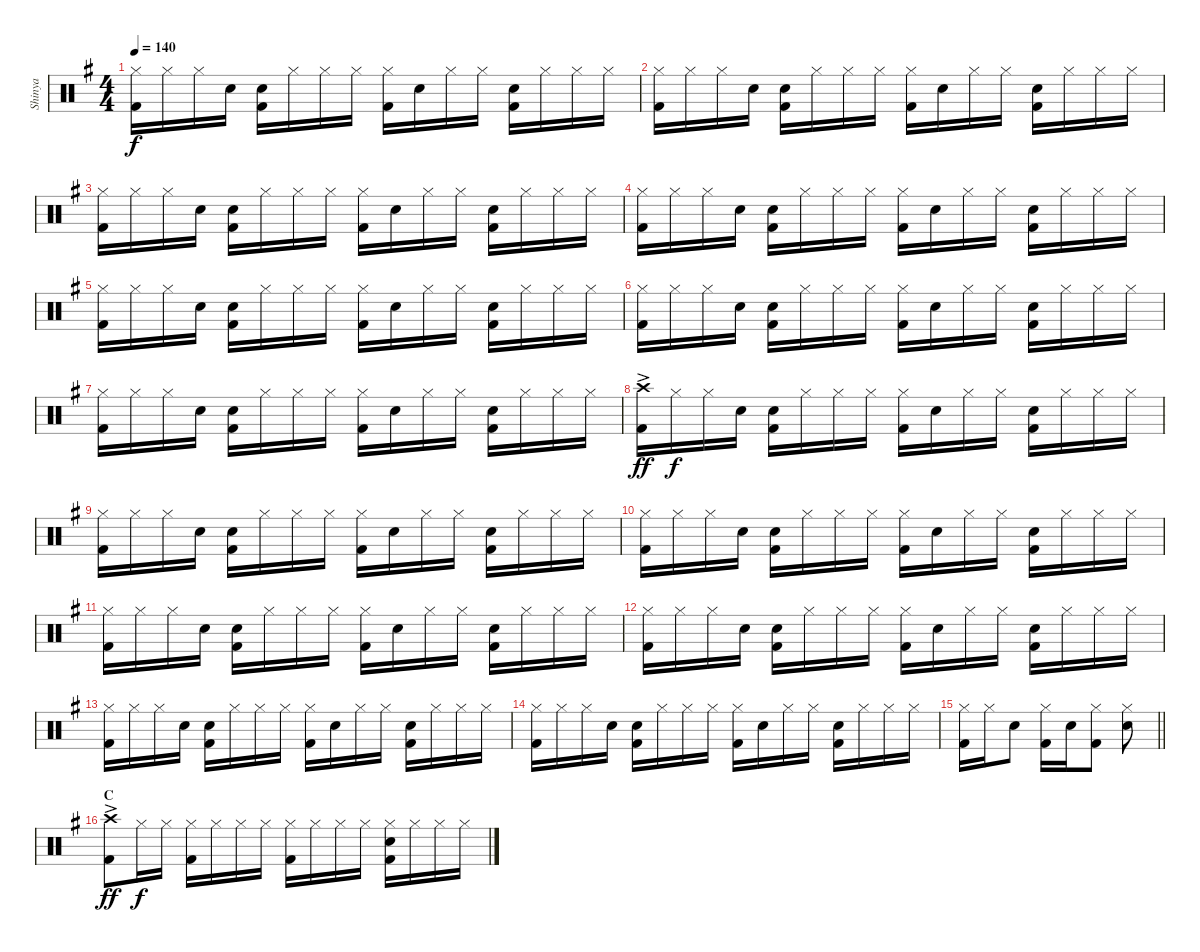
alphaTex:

\track ("Shinya" "Shinya") {instrument percussion}
\staff {score}
\articulation defaults
\ts (4 4)
\tempo 140
\clef neutral
\ks g
("Hi-Hat (closed)" "Kick (hit) 2").16{dy f} "Hi-Hat (closed)".16 "Hi-Hat (closed)".16 "Snare (hit) 2".16 ("Snare (hit) 2" "Kick (hit) 2").16 "Hi-Hat (closed)".16 "Hi-Hat (closed)".16 "Hi-Hat (closed)".16 ("Hi-Hat (closed)" "Kick (hit) 2").16 "Snare (hit) 2".16 "Hi-Hat (closed)".16 "Hi-Hat (closed)".16 ("Snare (hit) 2" "Kick (hit) 2").16 "Hi-Hat (closed)".16 "Hi-Hat (closed)".16 "Hi-Hat (closed)".16 |
("Hi-Hat (closed)" "Kick (hit) 2").16 "Hi-Hat (closed)".16 "Hi-Hat (closed)".16 "Snare (hit) 2".16 ("Snare (hit) 2" "Kick (hit) 2").16 "Hi-Hat (closed)".16 "Hi-Hat (closed)".16 "Hi-Hat (closed)".16 ("Hi-Hat (closed)" "Kick (hit) 2").16 "Snare (hit) 2".16 "Hi-Hat (closed)".16 "Hi-Hat (closed)".16 ("Snare (hit) 2" "Kick (hit) 2").16 "Hi-Hat (closed)".16 "Hi-Hat (closed)".16 "Hi-Hat (closed)".16 |
("Hi-Hat (closed)" "Kick (hit) 2").16 "Hi-Hat (closed)".16 "Hi-Hat (closed)".16 "Snare (hit) 2".16 ("Snare (hit) 2" "Kick (hit) 2").16 "Hi-Hat (closed)".16 "Hi-Hat (closed)".16 "Hi-Hat (closed)".16 ("Hi-Hat (closed)" "Kick (hit) 2").16 "Snare (hit) 2".16 "Hi-Hat (closed)".16 "Hi-Hat (closed)".16 ("Snare (hit) 2" "Kick (hit) 2").16 "Hi-Hat (closed)".16 "Hi-Hat (closed)".16 "Hi-Hat (closed)".16 |
("Hi-Hat (closed)" "Kick (hit) 2").16 "Hi-Hat (closed)".16 "Hi-Hat (closed)".16 "Snare (hit) 2".16 ("Snare (hit) 2" "Kick (hit) 2").16 "Hi-Hat (closed)".16 "Hi-Hat (closed)".16 "Hi-Hat (closed)".16 ("Hi-Hat (closed)" "Kick (hit) 2").16 "Snare (hit) 2".16 "Hi-Hat (closed)".16 "Hi-Hat (closed)".16 ("Snare (hit) 2" "Kick (hit) 2").16 "Hi-Hat (closed)".16 "Hi-Hat (closed)".16 "Hi-Hat (closed)".16 |
("Hi-Hat (closed)" "Kick (hit) 2").16 "Hi-Hat (closed)".16 "Hi-Hat (closed)".16 "Snare (hit) 2".16 ("Snare (hit) 2" "Kick (hit) 2").16 "Hi-Hat (closed)".16 "Hi-Hat (closed)".16 "Hi-Hat (closed)".16 ("Hi-Hat (closed)" "Kick (hit) 2").16 "Snare (hit) 2".16 "Hi-Hat (closed)".16 "Hi-Hat (closed)".16 ("Snare (hit) 2" "Kick (hit) 2").16 "Hi-Hat (closed)".16 "Hi-Hat (closed)".16 "Hi-Hat (closed)".16 |
("Hi-Hat (closed)" "Kick (hit) 2").16 "Hi-Hat (closed)".16 "Hi-Hat (closed)".16 "Snare (hit) 2".16 ("Snare (hit) 2" "Kick (hit) 2").16 "Hi-Hat (closed)".16 "Hi-Hat (closed)".16 "Hi-Hat (closed)".16 ("Hi-Hat (closed)" "Kick (hit) 2").16 "Snare (hit) 2".16 "Hi-Hat (closed)".16 "Hi-Hat (closed)".16 ("Snare (hit) 2" "Kick (hit) 2").16 "Hi-Hat (closed)".16 "Hi-Hat (closed)".16 "Hi-Hat (closed)".16 |
("Hi-Hat (closed)" "Kick (hit) 2").16 "Hi-Hat (closed)".16 "Hi-Hat (closed)".16 "Snare (hit) 2".16 ("Snare (hit) 2" "Kick (hit) 2").16 "Hi-Hat (closed)".16 "Hi-Hat (closed)".16 "Hi-Hat (closed)".16 ("Hi-Hat (closed)" "Kick (hit) 2").16 "Snare (hit) 2".16 "Hi-Hat (closed)".16 "Hi-Hat (closed)".16 ("Snare (hit) 2" "Kick (hit) 2").16 "Hi-Hat (closed)".16 "Hi-Hat (closed)".16 "Hi-Hat (closed)".16 |
("Crash high (hit)"{ac} "Kick (hit) 2").16{dy ff} "Hi-Hat (closed)".16{dy f} "Hi-Hat (closed)".16 "Snare (hit) 2".16 ("Snare (hit) 2" "Kick (hit) 2").16 "Hi-Hat (closed)".16 "Hi-Hat (closed)".16 "Hi-Hat (closed)".16 ("Hi-Hat (closed)" "Kick (hit) 2").16 "Snare (hit) 2".16 "Hi-Hat (closed)".16 "Hi-Hat (closed)".16 ("Snare (hit) 2" "Kick (hit) 2").16 "Hi-Hat (closed)".16 "Hi-Hat (closed)".16 "Hi-Hat (closed)".16 |
("Hi-Hat (closed)" "Kick (hit) 2").16 "Hi-Hat (closed)".16 "Hi-Hat (closed)".16 "Snare (hit) 2".16 ("Snare (hit) 2" "Kick (hit) 2").16 "Hi-Hat (closed)".16 "Hi-Hat (closed)".16 "Hi-Hat (closed)".16 ("Hi-Hat (closed)" "Kick (hit) 2").16 "Snare (hit) 2".16 "Hi-Hat (closed)".16 "Hi-Hat (closed)".16 ("Snare (hit) 2" "Kick (hit) 2").16 "Hi-Hat (closed)".16 "Hi-Hat (closed)".16 "Hi-Hat (closed)".16 |
("Hi-Hat (closed)" "Kick (hit) 2").16 "Hi-Hat (closed)".16 "Hi-Hat (closed)".16 "Snare (hit) 2".16 ("Snare (hit) 2" "Kick (hit) 2").16 "Hi-Hat (closed)".16 "Hi-Hat (closed)".16 "Hi-Hat (closed)".16 ("Hi-Hat (closed)" "Kick (hit) 2").16 "Snare (hit) 2".16 "Hi-Hat (closed)".16 "Hi-Hat (closed)".16 ("Snare (hit) 2" "Kick (hit) 2").16 "Hi-Hat (closed)".16 "Hi-Hat (closed)".16 "Hi-Hat (closed)".16 |
("Hi-Hat (closed)" "Kick (hit) 2").16 "Hi-Hat (closed)".16 "Hi-Hat (closed)".16 "Snare (hit) 2".16 ("Snare (hit) 2" "Kick (hit) 2").16 "Hi-Hat (closed)".16 "Hi-Hat (closed)".16 "Hi-Hat (closed)".16 ("Hi-Hat (closed)" "Kick (hit) 2").16 "Snare (hit) 2".16 "Hi-Hat (closed)".16 "Hi-Hat (closed)".16 ("Snare (hit) 2" "Kick (hit) 2").16 "Hi-Hat (closed)".16 "Hi-Hat (closed)".16 "Hi-Hat (closed)".16 |
("Hi-Hat (closed)" "Kick (hit) 2").16 "Hi-Hat (closed)".16 "Hi-Hat (closed)".16 "Snare (hit) 2".16 ("Snare (hit) 2" "Kick (hit) 2").16 "Hi-Hat (closed)".16 "Hi-Hat (closed)".16 "Hi-Hat (closed)".16 ("Hi-Hat (closed)" "Kick (hit) 2").16 "Snare (hit) 2".16 "Hi-Hat (closed)".16 "Hi-Hat (closed)".16 ("Snare (hit) 2" "Kick (hit) 2").16 "Hi-Hat (closed)".16 "Hi-Hat (closed)".16 "Hi-Hat (closed)".16 |
("Hi-Hat (closed)" "Kick (hit) 2").16 "Hi-Hat (closed)".16 "Hi-Hat (closed)".16 "Snare (hit) 2".16 ("Snare (hit) 2" "Kick (hit) 2").16 "Hi-Hat (closed)".16 "Hi-Hat (closed)".16 "Hi-Hat (closed)".16 ("Hi-Hat (closed)" "Kick (hit) 2").16 "Snare (hit) 2".16 "Hi-Hat (closed)".16 "Hi-Hat (closed)".16 ("Snare (hit) 2" "Kick (hit) 2").16 "Hi-Hat (closed)".16 "Hi-Hat (closed)".16 "Hi-Hat (closed)".16 |
("Hi-Hat (closed)" "Kick (hit) 2").16 "Hi-Hat (closed)".16 "Hi-Hat (closed)".16 "Snare (hit) 2".16 ("Snare (hit) 2" "Kick (hit) 2").16 "Hi-Hat (closed)".16 "Hi-Hat (closed)".16 "Hi-Hat (closed)".16 ("Hi-Hat (closed)" "Kick (hit) 2").16 "Snare (hit) 2".16 "Hi-Hat (closed)".16 "Hi-Hat (closed)".16 ("Snare (hit) 2" "Kick (hit) 2").16 "Hi-Hat (closed)".16 "Hi-Hat (closed)".16 "Hi-Hat (closed)".16 |
\barLineRight lightlight
("Hi-Hat (closed)" "Kick (hit) 2").16 "Hi-Hat (closed)".16 "Snare (hit) 2".8 ("Hi-Hat (closed)" "Kick (hit) 2").16 "Snare (hit) 2".16 ("Hi-Hat (closed)" "Kick (hit) 2").8 ("Hi-Hat (closed)" "Snare (hit) 2").8 |
\section ("" "C")
("Crash high (hit)"{ac} "Kick (hit) 2").8{dy ff} "Hi-Hat (closed)".16{dy f} "Hi-Hat (closed)".16 ("Hi-Hat (closed)" "Kick (hit) 2").16 "Hi-Hat (closed)".16 "Hi-Hat (closed)".16 "Hi-Hat (closed)".16 ("Hi-Hat (closed)" "Kick (hit) 2").16 "Hi-Hat (closed)".16 "Hi-Hat (closed)".16 "Hi-Hat (closed)".16 ("Hi-Hat (closed)" "Snare (hit) 2" "Kick (hit) 2").16 "Hi-Hat (closed)".16 "Hi-Hat (closed)".16 "Hi-Hat (closed)".16
